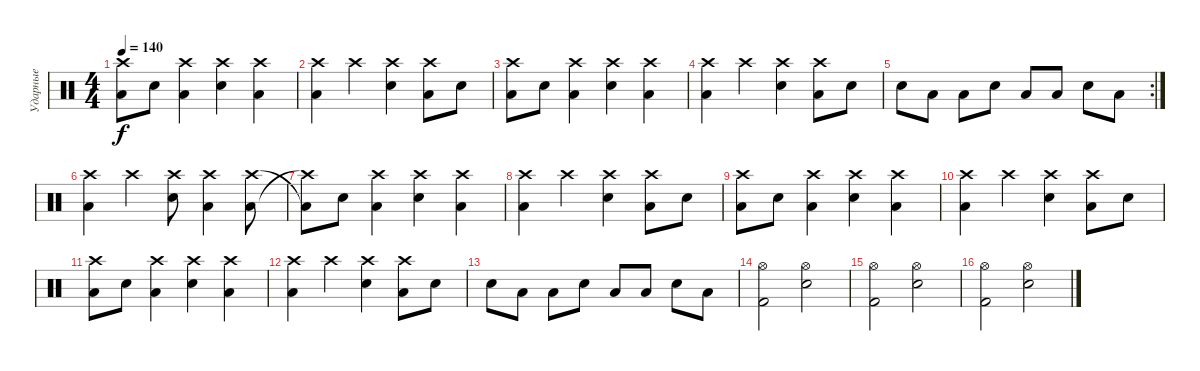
\track ("Ударные" "Ударные") {instrument percussion}
\staff {score}
\articulation defaults
\ts (4 4)
\tempo 140
\clef neutral
\ks c
("Crash high (hit)" "Low Floor Tom (hit)").8{dy f} "Electric Snare (hit)".8 ("Crash high (hit)" "Low Floor Tom (hit)").4 ("Electric Snare (hit)" "Crash high (hit)").4 ("Low Floor Tom (hit)" "Crash high (hit)").4 |
("Crash high (hit)" "Low Floor Tom (hit)").4 "Crash high (hit)".4 ("Crash high (hit)" "Electric Snare (hit)").4 ("Crash high (hit)" "Low Floor Tom (hit)").8 "Electric Snare (hit)".8 |
("Crash high (hit)" "Low Floor Tom (hit)").8 "Electric Snare (hit)".8 ("Crash high (hit)" "Low Floor Tom (hit)").4 ("Crash high (hit)" "Electric Snare (hit)").4 ("Low Floor Tom (hit)" "Crash high (hit)").4 |
("Crash high (hit)" "Low Floor Tom (hit)").4 "Crash high (hit)".4 ("Crash high (hit)" "Electric Snare (hit)").4 ("Crash high (hit)" "Low Floor Tom (hit)").8 "Electric Snare (hit)".8 |
\rc 2 "Electric Snare (hit)".8 "Low Tom (hit)".8 "Low Tom (hit)".8 "Electric Snare (hit)".8 "Low Tom (hit)".8 "Low Tom (hit)".8 "Electric Snare (hit)".8 "Low Tom (hit)".8
|
("Crash high (hit)" "Low Floor Tom (hit)").4 "Crash high (hit)".4 ("Crash high (hit)" "Electric Snare (hit)").8 ("Crash high (hit)" "Low Floor Tom (hit)").4 ("Low Floor Tom (hit)" "Crash high (hit)").8 |
("Crash high (hit)"{t} "Low Floor Tom (hit)"{t}).8 "Electric Snare (hit)".8 ("Crash high (hit)" "Low Floor Tom (hit)").4 ("Crash high (hit)" "Electric Snare (hit)").4 ("Low Floor Tom (hit)" "Crash high (hit)").4 |
("Crash high (hit)" "Low Floor Tom (hit)").4 "Crash high (hit)".4 ("Crash high (hit)" "Electric Snare (hit)").4 ("Crash high (hit)" "Low Floor Tom (hit)").8 "Electric Snare (hit)".8 |
("Crash high (hit)" "Low Floor Tom (hit)").8 "Electric Snare (hit)".8 ("Crash high (hit)" "Low Floor Tom (hit)").4 ("Electric Snare (hit)" "Crash high (hit)").4 ("Low Floor Tom (hit)" "Crash high (hit)").4 |
("Crash high (hit)" "Low Floor Tom (hit)").4 "Crash high (hit)".4 ("Crash high (hit)" "Electric Snare (hit)").4 ("Crash high (hit)" "Low Floor Tom (hit)").8 "Electric Snare (hit)".8 |
("Crash high (hit)" "Low Floor Tom (hit)").8 "Electric Snare (hit)".8 ("Crash high (hit)" "Low Floor Tom (hit)").4 ("Crash high (hit)" "Electric Snare (hit)").4 ("Low Floor Tom (hit)" "Crash high (hit)").4 |
("Crash high (hit)" "Low Floor Tom (hit)").4 "Crash high (hit)".4 ("Crash high (hit)" "Electric Snare (hit)").4 ("Crash high (hit)" "Low Floor Tom (hit)").8 "Electric Snare (hit)".8 |
"Electric Snare (hit)".8 "Low Tom (hit)".8 "Low Tom (hit)".8 "Electric Snare (hit)".8 "Low Tom (hit)".8 "Low Tom (hit)".8 "Electric Snare (hit)".8 "Low Tom (hit)".8 |
("Hi-Hat (open)" "Kick (hit) 2").2 ("Hi-Hat (open)" "Electric Snare (hit)").2 |
("Hi-Hat (open)" "Kick (hit) 2").2 ("Hi-Hat (open)" "Electric Snare (hit)").2 |
("Hi-Hat (open)" "Kick (hit) 2").2 ("Hi-Hat (open)" "Electric Snare (hit)").2
